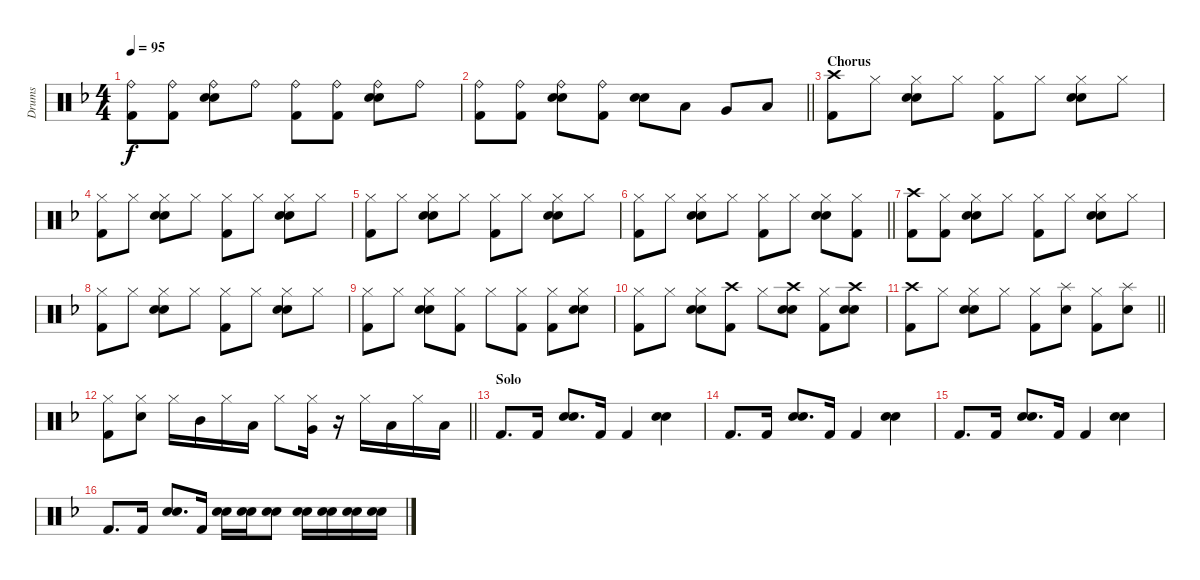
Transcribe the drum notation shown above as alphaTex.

\track ("Drums" "Drums") {instrument percussion}
\staff {score}
\articulation defaults
\ts (4 4)
\tempo 95
\clef neutral
\ks dminor
("Ride (bell)" "Kick (hit) 2").8{dy f} ("Ride (bell)" "Kick (hit) 2").8 ("Ride (bell)" "Snare (hit) 2" "Electric Snare (hit)").8 "Ride (bell)".8 ("Ride (bell)" "Kick (hit) 2").8 ("Ride (bell)" "Kick (hit) 2").8 ("Ride (bell)" "Snare (hit) 2" "Electric Snare (hit)").8 "Ride (bell)".8 |
\barLineRight lightlight
("Ride (bell)" "Kick (hit) 2").8 ("Ride (bell)" "Kick (hit) 2").8 ("Ride (bell)" "Snare (hit) 2" "Electric Snare (hit)").8 ("Ride (bell)" "Kick (hit) 2").8 ("Snare (hit) 2" "Electric Snare (hit)").8 "Low Tom (hit)".8 "Very Low Tom (hit)".8 "Low Floor Tom (hit)".8 |
\section ("" "Chorus")
("Crash high (hit)" "Kick (hit) 2").8 "Hi-Hat (closed)".8 ("Hi-Hat (closed)" "Snare (hit) 2" "Electric Snare (hit)").8 "Hi-Hat (closed)".8 ("Hi-Hat (closed)" "Kick (hit) 2").8 "Hi-Hat (closed)".8 ("Hi-Hat (closed)" "Snare (hit) 2" "Electric Snare (hit)").8 "Hi-Hat (closed)".8 |
("Hi-Hat (closed)" "Kick (hit) 2").8 "Hi-Hat (closed)".8 ("Hi-Hat (closed)" "Snare (hit) 2" "Electric Snare (hit)").8 "Hi-Hat (closed)".8 ("Hi-Hat (closed)" "Kick (hit) 2").8 "Hi-Hat (closed)".8 ("Hi-Hat (closed)" "Snare (hit) 2" "Electric Snare (hit)").8 "Hi-Hat (closed)".8 |
("Hi-Hat (closed)" "Kick (hit) 2").8 "Hi-Hat (closed)".8 ("Hi-Hat (closed)" "Snare (hit) 2" "Electric Snare (hit)").8 "Hi-Hat (closed)".8 ("Hi-Hat (closed)" "Kick (hit) 2").8 "Hi-Hat (closed)".8 ("Hi-Hat (closed)" "Snare (hit) 2" "Electric Snare (hit)").8 "Hi-Hat (closed)".8 |
\barLineRight lightlight
("Hi-Hat (closed)" "Kick (hit) 2").8 "Hi-Hat (closed)".8 ("Hi-Hat (closed)" "Snare (hit) 2" "Electric Snare (hit)").8 "Hi-Hat (closed)".8 ("Hi-Hat (closed)" "Kick (hit) 2").8 "Hi-Hat (closed)".8 ("Hi-Hat (closed)" "Snare (hit) 2" "Electric Snare (hit)").8 ("Hi-Hat (closed)" "Kick (hit) 2").8 |
("Crash high (hit)" "Kick (hit) 2").8 ("Hi-Hat (closed)" "Kick (hit) 2").8 ("Hi-Hat (closed)" "Snare (hit) 2" "Electric Snare (hit)").8 "Hi-Hat (closed)".8 ("Hi-Hat (closed)" "Kick (hit) 2").8 "Hi-Hat (closed)".8 ("Hi-Hat (closed)" "Snare (hit) 2" "Electric Snare (hit)").8 "Hi-Hat (closed)".8 |
("Hi-Hat (closed)" "Kick (hit) 2").8 "Hi-Hat (closed)".8 ("Hi-Hat (closed)" "Snare (hit) 2" "Electric Snare (hit)").8 "Hi-Hat (closed)".8 ("Hi-Hat (closed)" "Kick (hit) 2").8 "Hi-Hat (closed)".8 ("Hi-Hat (closed)" "Snare (hit) 2" "Electric Snare (hit)").8 "Hi-Hat (closed)".8 |
("Hi-Hat (closed)" "Kick (hit) 2").8 "Hi-Hat (closed)".8 ("Hi-Hat (closed)" "Snare (hit) 2" "Electric Snare (hit)").8 ("Hi-Hat (closed)" "Kick (hit) 2").8 "Hi-Hat (closed)".8 ("Hi-Hat (closed)" "Kick (hit) 2").8 ("Hi-Hat (closed)" "Kick (hit) 2").8 ("Hi-Hat (closed)" "Snare (hit) 2" "Electric Snare (hit)").8 |
("Hi-Hat (closed)" "Kick (hit) 2").8 "Hi-Hat (closed)".8 ("Hi-Hat (closed)" "Snare (hit) 2" "Electric Snare (hit)").8 ("Crash high (hit)" "Kick (hit) 2").8 "Hi-Hat (closed)".8 ("Crash high (hit)" "Snare (hit) 2" "Electric Snare (hit)").8 ("Hi-Hat (closed)" "Kick (hit) 2").8 ("Crash high (hit)" "Snare (hit) 2" "Electric Snare (hit)").8 |
\barLineRight lightlight
("Crash high (hit)" "Kick (hit) 2").8 "Hi-Hat (closed)".8 ("Hi-Hat (closed)" "Snare (hit) 2" "Electric Snare (hit)").8 "Hi-Hat (closed)".8 ("Hi-Hat (closed)" "Kick (hit) 2").8 ("Splash (hit)" "Electric Snare (hit)").8 ("Hi-Hat (closed)" "Kick (hit) 2").8 ("Splash (hit)" "Electric Snare (hit)").8 |
\barLineRight lightlight
("Hi-Hat (closed)" "Kick (hit) 2").8 ("Hi-Hat (closed)" "Electric Snare (hit)").8 "Hi-Hat (closed)".16 "Mid Tom (hit)".16 "Hi-Hat (closed)".16 "Low Tom (hit)".16 "Hi-Hat (closed)".8 ("Hi-Hat (closed)" "Very Low Tom (hit)").16 r.16 "Hi-Hat (closed)".16 "Low Floor Tom (hit)".16 "Hi-Hat (closed)".16 "Low Floor Tom (hit)".16 |
\section ("" "Solo")
"Kick (hit) 2".8{d} "Kick (hit) 2".16 ("Snare (hit) 2" "Electric Snare (hit)").8{d} "Kick (hit) 2".16 "Kick (hit) 2".4 ("Snare (hit) 2" "Electric Snare (hit)").4 |
"Kick (hit) 2".8{d} "Kick (hit) 2".16 ("Snare (hit) 2" "Electric Snare (hit)").8{d} "Kick (hit) 2".16 "Kick (hit) 2".4 ("Snare (hit) 2" "Electric Snare (hit)").4 |
"Kick (hit) 2".8{d} "Kick (hit) 2".16 ("Snare (hit) 2" "Electric Snare (hit)").8{d} "Kick (hit) 2".16 "Kick (hit) 2".4 ("Snare (hit) 2" "Electric Snare (hit)").4 |
"Kick (hit) 2".8{d} "Kick (hit) 2".16 ("Snare (hit) 2" "Electric Snare (hit)").8{d} "Kick (hit) 2".16 ("Snare (hit) 2" "Electric Snare (hit)").16 ("Snare (hit) 2" "Electric Snare (hit)").16 ("Snare (hit) 2" "Electric Snare (hit)").8 ("Snare (hit) 2" "Electric Snare (hit)").16 ("Snare (hit) 2" "Electric Snare (hit)").16 ("Snare (hit) 2" "Electric Snare (hit)").16 ("Snare (hit) 2" "Electric Snare (hit)").16
